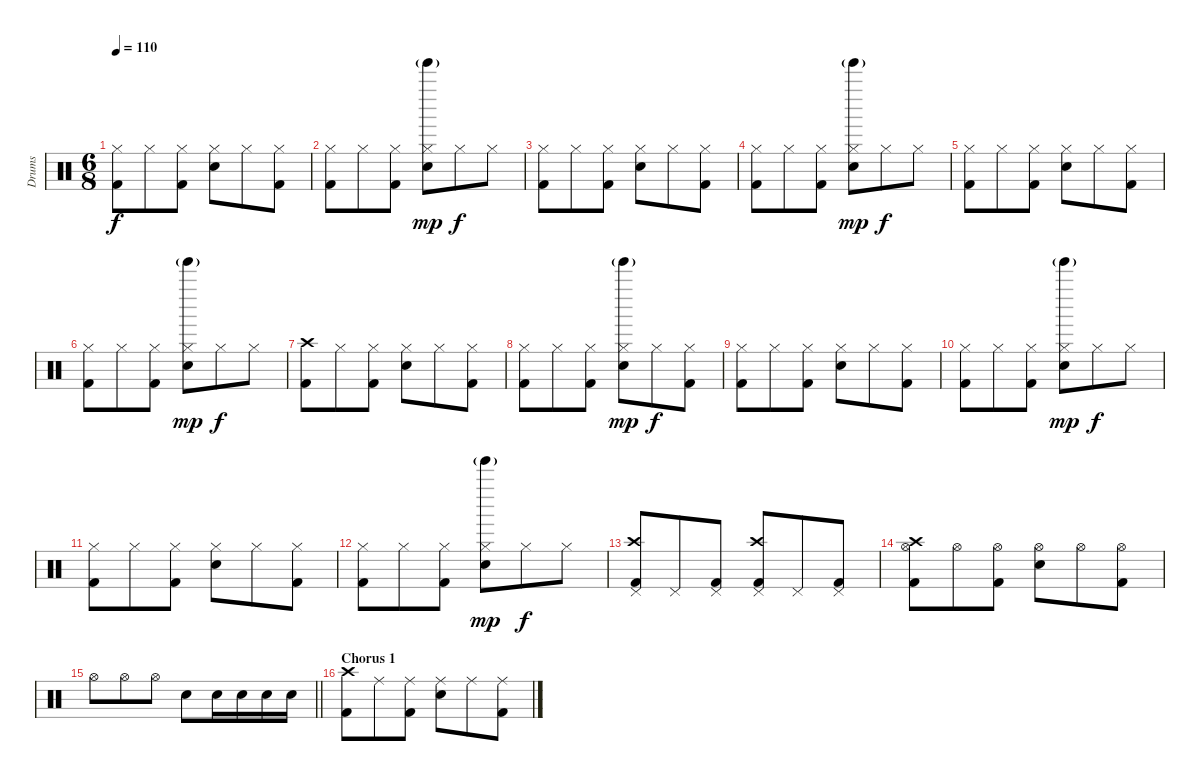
\track ("Drums" "Drums") {instrument percussion}
\staff {score}
\articulation defaults
\ts (6 8)
\tempo 110
\clef neutral
\ks c
("Hi-Hat (closed)" "Kick (hit) 2").8{dy f} "Hi-Hat (closed)".8 ("Hi-Hat (closed)" "Kick (hit) 2").8 ("Hi-Hat (closed)" "Snare (hit) 2").8 "Hi-Hat (closed)".8 ("Hi-Hat (closed)" "Kick (hit) 2").8 |
("Hi-Hat (closed)" "Kick (hit) 2").8 "Hi-Hat (closed)".8 ("Hi-Hat (closed)" "Kick (hit) 2").8 ("Hi-Hat (closed)" "Tinkle Bell (hit)"{g} "Snare (hit) 2").8{dy mp} "Hi-Hat (closed)".8{dy f} "Hi-Hat (closed)".8 |
("Hi-Hat (closed)" "Kick (hit) 2").8 "Hi-Hat (closed)".8 ("Hi-Hat (closed)" "Kick (hit) 2").8 ("Hi-Hat (closed)" "Snare (hit) 2").8 "Hi-Hat (closed)".8 ("Hi-Hat (closed)" "Kick (hit) 2").8 |
("Hi-Hat (closed)" "Kick (hit) 2").8 "Hi-Hat (closed)".8 ("Hi-Hat (closed)" "Kick (hit) 2").8 ("Hi-Hat (closed)" "Tinkle Bell (hit)"{g} "Snare (hit) 2").8{dy mp} "Hi-Hat (closed)".8{dy f} "Hi-Hat (closed)".8 |
("Hi-Hat (closed)" "Kick (hit) 2").8 "Hi-Hat (closed)".8 ("Hi-Hat (closed)" "Kick (hit) 2").8 ("Hi-Hat (closed)" "Snare (hit) 2").8 "Hi-Hat (closed)".8 ("Hi-Hat (closed)" "Kick (hit) 2").8 |
("Hi-Hat (closed)" "Kick (hit) 2").8 "Hi-Hat (closed)".8 ("Hi-Hat (closed)" "Kick (hit) 2").8 ("Hi-Hat (closed)" "Tinkle Bell (hit)"{g} "Snare (hit) 2").8{dy mp} "Hi-Hat (closed)".8{dy f} "Hi-Hat (closed)".8 |
("Crash high (hit)" "Kick (hit) 2").8 "Hi-Hat (closed)".8 ("Hi-Hat (closed)" "Kick (hit) 2").8 ("Hi-Hat (closed)" "Snare (hit) 2").8 "Hi-Hat (closed)".8 ("Hi-Hat (closed)" "Kick (hit) 2").8 |
("Hi-Hat (closed)" "Kick (hit) 2").8 "Hi-Hat (closed)".8 ("Hi-Hat (closed)" "Kick (hit) 2").8 ("Hi-Hat (closed)" "Tinkle Bell (hit)"{g} "Snare (hit) 2").8{dy mp} "Hi-Hat (closed)".8{dy f} ("Hi-Hat (closed)" "Kick (hit) 2").8 |
("Hi-Hat (closed)" "Kick (hit) 2").8 "Hi-Hat (closed)".8 ("Hi-Hat (closed)" "Kick (hit) 2").8 ("Hi-Hat (closed)" "Snare (hit) 2").8 "Hi-Hat (closed)".8 ("Hi-Hat (closed)" "Kick (hit) 2").8 |
("Hi-Hat (closed)" "Kick (hit) 2").8 "Hi-Hat (closed)".8 ("Hi-Hat (closed)" "Kick (hit) 2").8 ("Hi-Hat (closed)" "Tinkle Bell (hit)"{g} "Snare (hit) 2").8{dy mp} "Hi-Hat (closed)".8{dy f} "Hi-Hat (closed)".8 |
("Hi-Hat (closed)" "Kick (hit) 2").8 "Hi-Hat (closed)".8 ("Hi-Hat (closed)" "Kick (hit) 2").8 ("Hi-Hat (closed)" "Snare (hit) 2").8 "Hi-Hat (closed)".8 ("Hi-Hat (closed)" "Kick (hit) 2").8 |
("Hi-Hat (closed)" "Kick (hit) 2").8 "Hi-Hat (closed)".8 ("Hi-Hat (closed)" "Kick (hit) 2").8 ("Hi-Hat (closed)" "Tinkle Bell (hit)"{g} "Snare (hit) 2").8{dy mp} "Hi-Hat (closed)".8{dy f} "Hi-Hat (closed)".8 |
("Crash high (hit)" "Pedal Hi-Hat (hit)" "Kick (hit) 2").8 "Pedal Hi-Hat (hit)".8 ("Pedal Hi-Hat (hit)" "Kick (hit) 2").8 ("Crash high (hit)" "Pedal Hi-Hat (hit)" "Kick (hit) 2").8 "Pedal Hi-Hat (hit)".8 ("Pedal Hi-Hat (hit)" "Kick (hit) 2").8 |
("Crash high (hit)" "Hi-Hat (open)" "Kick (hit) 2").8 "Hi-Hat (open)".8 ("Hi-Hat (open)" "Kick (hit) 2").8 ("Hi-Hat (open)" "Snare (hit) 2").8 "Hi-Hat (open)".8 ("Hi-Hat (open)" "Kick (hit) 2").8 |
\barLineRight lightlight "Hi-Hat (open)".8 "Hi-Hat (open)".8 "Hi-Hat (open)".8 "Snare (hit) 2".8 "Snare (hit) 2".16 "Snare (hit) 2".16 "Snare (hit) 2".16 "Snare (hit) 2".16
|
\section ("" "Chorus 1")
("Crash high (hit)" "Kick (hit) 2").8 "Ride (middle)".8 ("Ride (middle)" "Kick (hit) 2").8 ("Ride (middle)" "Snare (hit) 2").8 "Ride (middle)".8 ("Ride (middle)" "Kick (hit) 2").8
